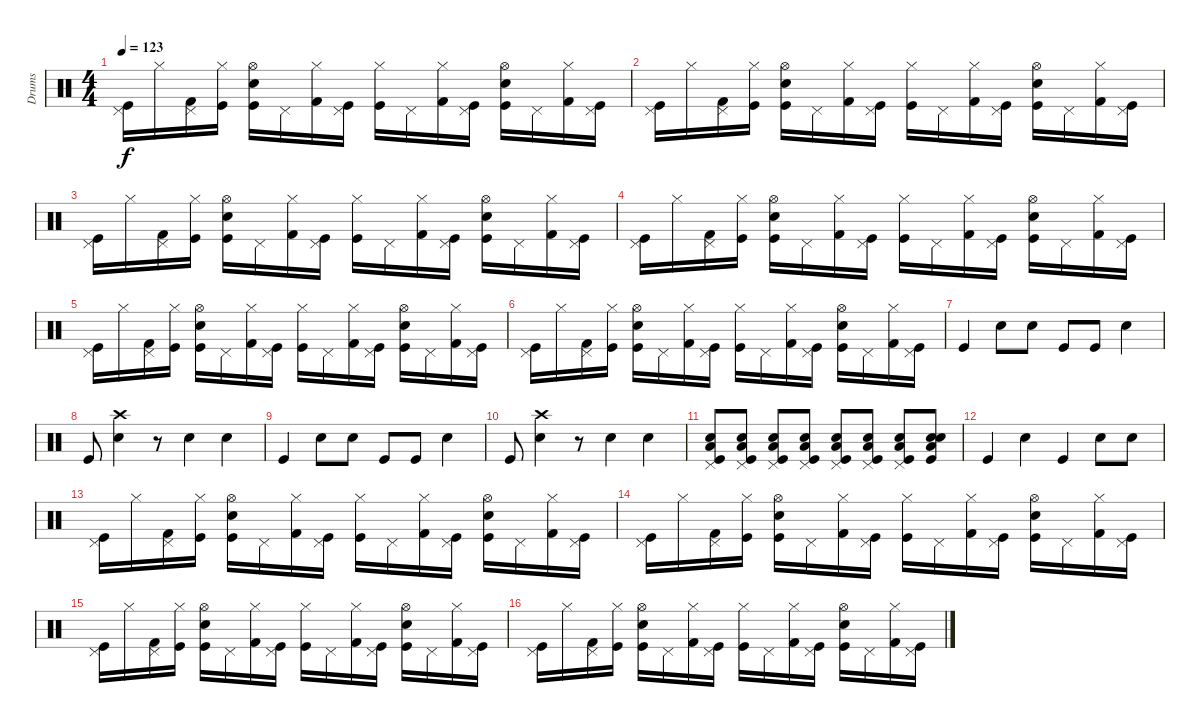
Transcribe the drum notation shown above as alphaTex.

\track ("Drums" "Drums") {instrument percussion}
\staff {score}
\articulation defaults
\ts (4 4)
\tempo 123
\clef neutral
\ks c
("Pedal Hi-Hat (hit)" "Kick (hit)").16{dy f} "Hi-Hat (closed)".16 ("Pedal Hi-Hat (hit)" "Kick (hit) 2").16 ("Hi-Hat (closed)" "Kick (hit)").16 ("Hi-Hat (open)" "Snare (hit) 2" "Kick (hit)").16 "Pedal Hi-Hat (hit)".16 ("Hi-Hat (closed)" "Kick (hit) 2").16 ("Pedal Hi-Hat (hit)" "Kick (hit)").16 ("Hi-Hat (closed)" "Kick (hit)").16 "Pedal Hi-Hat (hit)".16 ("Hi-Hat (closed)" "Kick (hit) 2").16 ("Pedal Hi-Hat (hit)" "Kick (hit)").16 ("Hi-Hat (open)" "Snare (hit) 2" "Kick (hit)").16 "Pedal Hi-Hat (hit)".16 ("Hi-Hat (closed)" "Kick (hit) 2").16 ("Pedal Hi-Hat (hit)" "Kick (hit)").16 |
("Pedal Hi-Hat (hit)" "Kick (hit)").16 "Hi-Hat (closed)".16 ("Pedal Hi-Hat (hit)" "Kick (hit) 2").16 ("Hi-Hat (closed)" "Kick (hit)").16 ("Hi-Hat (open)" "Snare (hit) 2" "Kick (hit)").16 "Pedal Hi-Hat (hit)".16 ("Hi-Hat (closed)" "Kick (hit) 2").16 ("Pedal Hi-Hat (hit)" "Kick (hit)").16 ("Hi-Hat (closed)" "Kick (hit)").16 "Pedal Hi-Hat (hit)".16 ("Hi-Hat (closed)" "Kick (hit) 2").16 ("Pedal Hi-Hat (hit)" "Kick (hit)").16 ("Hi-Hat (open)" "Snare (hit) 2" "Kick (hit)").16 "Pedal Hi-Hat (hit)".16 ("Hi-Hat (closed)" "Kick (hit) 2").16 ("Pedal Hi-Hat (hit)" "Kick (hit)").16 |
("Pedal Hi-Hat (hit)" "Kick (hit)").16 "Hi-Hat (closed)".16 ("Pedal Hi-Hat (hit)" "Kick (hit) 2").16 ("Hi-Hat (closed)" "Kick (hit)").16 ("Hi-Hat (open)" "Snare (hit) 2" "Kick (hit)").16 "Pedal Hi-Hat (hit)".16 ("Hi-Hat (closed)" "Kick (hit) 2").16 ("Pedal Hi-Hat (hit)" "Kick (hit)").16 ("Hi-Hat (closed)" "Kick (hit)").16 "Pedal Hi-Hat (hit)".16 ("Hi-Hat (closed)" "Kick (hit) 2").16 ("Pedal Hi-Hat (hit)" "Kick (hit)").16 ("Hi-Hat (open)" "Snare (hit) 2" "Kick (hit)").16 "Pedal Hi-Hat (hit)".16 ("Hi-Hat (closed)" "Kick (hit) 2").16 ("Pedal Hi-Hat (hit)" "Kick (hit)").16 |
("Pedal Hi-Hat (hit)" "Kick (hit)").16 "Hi-Hat (closed)".16 ("Pedal Hi-Hat (hit)" "Kick (hit) 2").16 ("Hi-Hat (closed)" "Kick (hit)").16 ("Hi-Hat (open)" "Snare (hit) 2" "Kick (hit)").16 "Pedal Hi-Hat (hit)".16 ("Hi-Hat (closed)" "Kick (hit) 2").16 ("Pedal Hi-Hat (hit)" "Kick (hit)").16 ("Hi-Hat (closed)" "Kick (hit)").16 "Pedal Hi-Hat (hit)".16 ("Hi-Hat (closed)" "Kick (hit) 2").16 ("Pedal Hi-Hat (hit)" "Kick (hit)").16 ("Hi-Hat (open)" "Snare (hit) 2" "Kick (hit)").16 "Pedal Hi-Hat (hit)".16 ("Hi-Hat (closed)" "Kick (hit) 2").16 ("Pedal Hi-Hat (hit)" "Kick (hit)").16 |
("Pedal Hi-Hat (hit)" "Kick (hit)").16 "Hi-Hat (closed)".16 ("Pedal Hi-Hat (hit)" "Kick (hit) 2").16 ("Hi-Hat (closed)" "Kick (hit)").16 ("Hi-Hat (open)" "Snare (hit) 2" "Kick (hit)").16 "Pedal Hi-Hat (hit)".16 ("Hi-Hat (closed)" "Kick (hit) 2").16 ("Pedal Hi-Hat (hit)" "Kick (hit)").16 ("Hi-Hat (closed)" "Kick (hit)").16 "Pedal Hi-Hat (hit)".16 ("Hi-Hat (closed)" "Kick (hit) 2").16 ("Pedal Hi-Hat (hit)" "Kick (hit)").16 ("Hi-Hat (open)" "Snare (hit) 2" "Kick (hit)").16 "Pedal Hi-Hat (hit)".16 ("Hi-Hat (closed)" "Kick (hit) 2").16 ("Pedal Hi-Hat (hit)" "Kick (hit)").16 |
("Pedal Hi-Hat (hit)" "Kick (hit)").16 "Hi-Hat (closed)".16 ("Pedal Hi-Hat (hit)" "Kick (hit) 2").16 ("Hi-Hat (closed)" "Kick (hit)").16 ("Hi-Hat (open)" "Snare (hit) 2" "Kick (hit)").16 "Pedal Hi-Hat (hit)".16 ("Hi-Hat (closed)" "Kick (hit) 2").16 ("Pedal Hi-Hat (hit)" "Kick (hit)").16 ("Hi-Hat (closed)" "Kick (hit)").16 "Pedal Hi-Hat (hit)".16 ("Hi-Hat (closed)" "Kick (hit) 2").16 ("Pedal Hi-Hat (hit)" "Kick (hit)").16 ("Hi-Hat (open)" "Snare (hit) 2" "Kick (hit)").16 "Pedal Hi-Hat (hit)".16 ("Hi-Hat (closed)" "Kick (hit) 2").16 ("Pedal Hi-Hat (hit)" "Kick (hit)").16 |
"Kick (hit)".4 "Snare (hit) 2".8 "Snare (hit) 2".8 "Kick (hit)".8 "Kick (hit)".8 "Snare (hit) 2".4 |
"Kick (hit)".8 ("Crash high (hit)" "Snare (hit) 2").4 r.8 "Snare (hit) 2".4 "Snare (hit) 2".4 |
"Kick (hit)".4 "Snare (hit) 2".8 "Snare (hit) 2".8 "Kick (hit)".8 "Kick (hit)".8 "Snare (hit) 2".4 |
"Kick (hit)".8 ("Crash high (hit)" "Snare (hit) 2").4 r.8 "Snare (hit) 2".4 "Snare (hit) 2".4 |
("Pedal Hi-Hat (hit)" "Snare (hit) 2" "Low Floor Tom (hit)" "Kick (hit)").8 ("Pedal Hi-Hat (hit)" "Snare (hit) 2" "Low Floor Tom (hit)" "Kick (hit)").8 ("Pedal Hi-Hat (hit)" "Snare (hit) 2" "Low Floor Tom (hit)" "Kick (hit)").8 ("Pedal Hi-Hat (hit)" "Snare (hit) 2" "Low Floor Tom (hit)" "Kick (hit)").8 ("Pedal Hi-Hat (hit)" "Snare (hit) 2" "Low Floor Tom (hit)" "Kick (hit)").8 ("Pedal Hi-Hat (hit)" "Snare (hit) 2" "Low Floor Tom (hit)" "Kick (hit)").8 ("Pedal Hi-Hat (hit)" "Snare (hit) 2" "Low Floor Tom (hit)" "Kick (hit)").8 ("Snare (hit)" "Snare (hit) 2" "Low Floor Tom (hit)" "Kick (hit)").8 |
"Kick (hit)".4 "Hand Clap (hit)".4 "Kick (hit)".4 "Hand Clap (hit)".8 "Hand Clap (hit)".8 |
("Pedal Hi-Hat (hit)" "Kick (hit)").16 "Hi-Hat (closed)".16 ("Pedal Hi-Hat (hit)" "Kick (hit) 2").16 ("Hi-Hat (closed)" "Kick (hit)").16 ("Hi-Hat (open)" "Snare (hit) 2" "Kick (hit)").16 "Pedal Hi-Hat (hit)".16 ("Hi-Hat (closed)" "Kick (hit) 2").16 ("Pedal Hi-Hat (hit)" "Kick (hit)").16 ("Hi-Hat (closed)" "Kick (hit)").16 "Pedal Hi-Hat (hit)".16 ("Hi-Hat (closed)" "Kick (hit) 2").16 ("Pedal Hi-Hat (hit)" "Kick (hit)").16 ("Hi-Hat (open)" "Snare (hit) 2" "Kick (hit)").16 "Pedal Hi-Hat (hit)".16 ("Hi-Hat (closed)" "Kick (hit) 2").16 ("Pedal Hi-Hat (hit)" "Kick (hit)").16 |
("Pedal Hi-Hat (hit)" "Kick (hit)").16 "Hi-Hat (closed)".16 ("Pedal Hi-Hat (hit)" "Kick (hit) 2").16 ("Hi-Hat (closed)" "Kick (hit)").16 ("Hi-Hat (open)" "Snare (hit) 2" "Kick (hit)").16 "Pedal Hi-Hat (hit)".16 ("Hi-Hat (closed)" "Kick (hit) 2").16 ("Pedal Hi-Hat (hit)" "Kick (hit)").16 ("Hi-Hat (closed)" "Kick (hit)").16 "Pedal Hi-Hat (hit)".16 ("Hi-Hat (closed)" "Kick (hit) 2").16 ("Pedal Hi-Hat (hit)" "Kick (hit)").16 ("Hi-Hat (open)" "Snare (hit) 2" "Kick (hit)").16 "Pedal Hi-Hat (hit)".16 ("Hi-Hat (closed)" "Kick (hit) 2").16 ("Pedal Hi-Hat (hit)" "Kick (hit)").16 |
("Pedal Hi-Hat (hit)" "Kick (hit)").16 "Hi-Hat (closed)".16 ("Pedal Hi-Hat (hit)" "Kick (hit) 2").16 ("Hi-Hat (closed)" "Kick (hit)").16 ("Hi-Hat (open)" "Snare (hit) 2" "Kick (hit)").16 "Pedal Hi-Hat (hit)".16 ("Hi-Hat (closed)" "Kick (hit) 2").16 ("Pedal Hi-Hat (hit)" "Kick (hit)").16 ("Hi-Hat (closed)" "Kick (hit)").16 "Pedal Hi-Hat (hit)".16 ("Hi-Hat (closed)" "Kick (hit) 2").16 ("Pedal Hi-Hat (hit)" "Kick (hit)").16 ("Hi-Hat (open)" "Snare (hit) 2" "Kick (hit)").16 "Pedal Hi-Hat (hit)".16 ("Hi-Hat (closed)" "Kick (hit) 2").16 ("Pedal Hi-Hat (hit)" "Kick (hit)").16 |
("Pedal Hi-Hat (hit)" "Kick (hit)").16 "Hi-Hat (closed)".16 ("Pedal Hi-Hat (hit)" "Kick (hit) 2").16 ("Hi-Hat (closed)" "Kick (hit)").16 ("Hi-Hat (open)" "Snare (hit) 2" "Kick (hit)").16 "Pedal Hi-Hat (hit)".16 ("Hi-Hat (closed)" "Kick (hit) 2").16 ("Pedal Hi-Hat (hit)" "Kick (hit)").16 ("Hi-Hat (closed)" "Kick (hit)").16 "Pedal Hi-Hat (hit)".16 ("Hi-Hat (closed)" "Kick (hit) 2").16 ("Pedal Hi-Hat (hit)" "Kick (hit)").16 ("Hi-Hat (open)" "Snare (hit) 2" "Kick (hit)").16 "Pedal Hi-Hat (hit)".16 ("Hi-Hat (closed)" "Kick (hit) 2").16 ("Pedal Hi-Hat (hit)" "Kick (hit)").16
